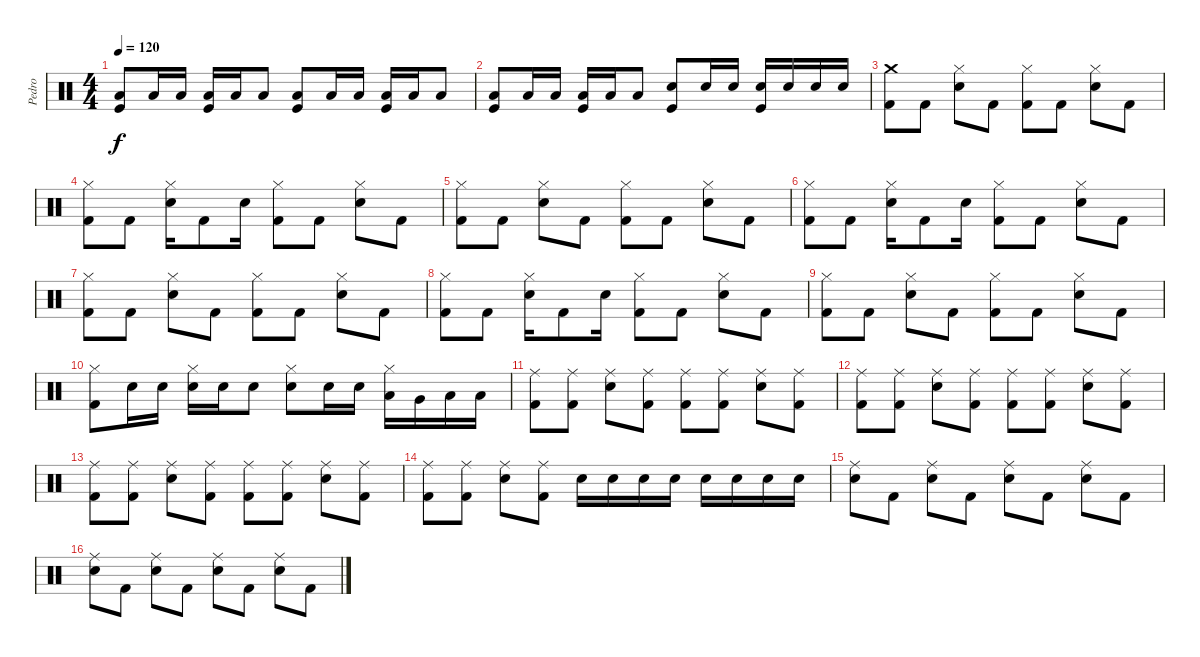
\track ("Pedro" "Pedro") {instrument percussion}
\staff {score}
\articulation defaults
\ts (4 4)
\tempo 120
\clef neutral
\ks c
("Low Floor Tom (hit)" "Kick (hit)").8{dy f} "Low Floor Tom (hit)".16 "Low Floor Tom (hit)".16 ("Low Floor Tom (hit)" "Kick (hit)").16 "Low Floor Tom (hit)".16 "Low Floor Tom (hit)".8 ("Low Floor Tom (hit)" "Kick (hit)").8 "Low Floor Tom (hit)".16 "Low Floor Tom (hit)".16 ("Low Floor Tom (hit)" "Kick (hit)").16 "Low Floor Tom (hit)".16 "Low Floor Tom (hit)".8 |
("Low Floor Tom (hit)" "Kick (hit)").8 "Low Floor Tom (hit)".16 "Low Floor Tom (hit)".16 ("Low Floor Tom (hit)" "Kick (hit)").16 "Low Floor Tom (hit)".16 "Low Floor Tom (hit)".8 ("Snare (hit) 2" "Kick (hit)").8 "Snare (hit) 2".16 "Snare (hit) 2".16 ("Snare (hit) 2" "Kick (hit)").16 "Snare (hit) 2".16 "Snare (hit) 2".16 "Snare (hit) 2".16 |
("Crash medium (hit)" "Kick (hit) 2").8 "Kick (hit) 2".8 ("Hi-Hat (closed)" "Snare (hit) 2").8 "Kick (hit) 2".8 ("Hi-Hat (closed)" "Kick (hit) 2").8 "Kick (hit) 2".8 ("Hi-Hat (closed)" "Snare (hit) 2").8 "Kick (hit) 2".8 |
("Hi-Hat (closed)" "Kick (hit) 2").8 "Kick (hit) 2".8 ("Hi-Hat (closed)" "Snare (hit) 2").16 "Kick (hit) 2".8 "Snare (hit) 2".16 ("Hi-Hat (closed)" "Kick (hit) 2").8 "Kick (hit) 2".8 ("Hi-Hat (closed)" "Snare (hit) 2").8 "Kick (hit) 2".8 |
("Hi-Hat (closed)" "Kick (hit) 2").8 "Kick (hit) 2".8 ("Hi-Hat (closed)" "Snare (hit) 2").8 "Kick (hit) 2".8 ("Hi-Hat (closed)" "Kick (hit) 2").8 "Kick (hit) 2".8 ("Hi-Hat (closed)" "Snare (hit) 2").8 "Kick (hit) 2".8 |
("Hi-Hat (closed)" "Kick (hit) 2").8 "Kick (hit) 2".8 ("Hi-Hat (closed)" "Snare (hit) 2").16 "Kick (hit) 2".8 "Snare (hit) 2".16 ("Hi-Hat (closed)" "Kick (hit) 2").8 "Kick (hit) 2".8 ("Hi-Hat (closed)" "Snare (hit) 2").8 "Kick (hit) 2".8 |
("Hi-Hat (closed)" "Kick (hit) 2").8 "Kick (hit) 2".8 ("Hi-Hat (closed)" "Snare (hit) 2").8 "Kick (hit) 2".8 ("Hi-Hat (closed)" "Kick (hit) 2").8 "Kick (hit) 2".8 ("Hi-Hat (closed)" "Snare (hit) 2").8 "Kick (hit) 2".8 |
("Hi-Hat (closed)" "Kick (hit) 2").8 "Kick (hit) 2".8 ("Hi-Hat (closed)" "Snare (hit) 2").16 "Kick (hit) 2".8 "Snare (hit) 2".16 ("Hi-Hat (closed)" "Kick (hit) 2").8 "Kick (hit) 2".8 ("Hi-Hat (closed)" "Snare (hit) 2").8 "Kick (hit) 2".8 |
("Hi-Hat (closed)" "Kick (hit) 2").8 "Kick (hit) 2".8 ("Hi-Hat (closed)" "Snare (hit) 2").8 "Kick (hit) 2".8 ("Hi-Hat (closed)" "Kick (hit) 2").8 "Kick (hit) 2".8 ("Hi-Hat (closed)" "Snare (hit) 2").8 "Kick (hit) 2".8 |
("Kick (hit) 2" "Hi-Hat (closed)").8 "Snare (hit) 2".16 "Snare (hit) 2".16 ("Snare (hit) 2" "Hi-Hat (closed)").16 "Snare (hit) 2".16 "Snare (hit) 2".8 ("Snare (hit) 2" "Hi-Hat (closed)").8 "Snare (hit) 2".16 "Snare (hit) 2".16 ("Low Tom (hit)" "Hi-Hat (closed)").16 "Very Low Tom (hit)".16 "Low Floor Tom (hit)".16 "Low Floor Tom (hit)".16 |
("Ride (middle)" "Kick (hit) 2").8 ("Ride (middle)" "Kick (hit) 2").8 ("Ride (middle)" "Snare (hit) 2").8 ("Ride (middle)" "Kick (hit) 2").8 ("Ride (middle)" "Kick (hit) 2").8 ("Ride (middle)" "Kick (hit) 2").8 ("Ride (middle)" "Snare (hit) 2").8 ("Ride (middle)" "Kick (hit) 2").8 |
("Ride (middle)" "Kick (hit) 2").8 ("Ride (middle)" "Kick (hit) 2").8 ("Ride (middle)" "Snare (hit) 2").8 ("Ride (middle)" "Kick (hit) 2").8 ("Ride (middle)" "Kick (hit) 2").8 ("Ride (middle)" "Kick (hit) 2").8 ("Ride (middle)" "Snare (hit) 2").8 ("Ride (middle)" "Kick (hit) 2").8 |
("Ride (middle)" "Kick (hit) 2").8 ("Ride (middle)" "Kick (hit) 2").8 ("Ride (middle)" "Snare (hit) 2").8 ("Ride (middle)" "Kick (hit) 2").8 ("Ride (middle)" "Kick (hit) 2").8 ("Ride (middle)" "Kick (hit) 2").8 ("Ride (middle)" "Snare (hit) 2").8 ("Ride (middle)" "Kick (hit) 2").8 |
("Ride (middle)" "Kick (hit) 2").8 ("Ride (middle)" "Kick (hit) 2").8 ("Ride (middle)" "Snare (hit) 2").8 ("Ride (middle)" "Kick (hit) 2").8 "Snare (hit) 2".16 "Snare (hit) 2".16 "Snare (hit) 2".16 "Snare (hit) 2".16 "Snare (hit) 2".16 "Snare (hit) 2".16 "Snare (hit) 2".16 "Snare (hit) 2".16 |
("Ride (middle)" "Snare (hit) 2").8 "Kick (hit) 2".8 ("Ride (middle)" "Snare (hit) 2").8 "Kick (hit) 2".8 ("Ride (middle)" "Snare (hit) 2").8 "Kick (hit) 2".8 ("Ride (middle)" "Snare (hit) 2").8 "Kick (hit) 2".8 |
("Ride (middle)" "Snare (hit) 2").8 "Kick (hit) 2".8 ("Ride (middle)" "Snare (hit) 2").8 "Kick (hit) 2".8 ("Ride (middle)" "Snare (hit) 2").8 "Kick (hit) 2".8 ("Ride (middle)" "Snare (hit) 2").8 "Kick (hit) 2".8
